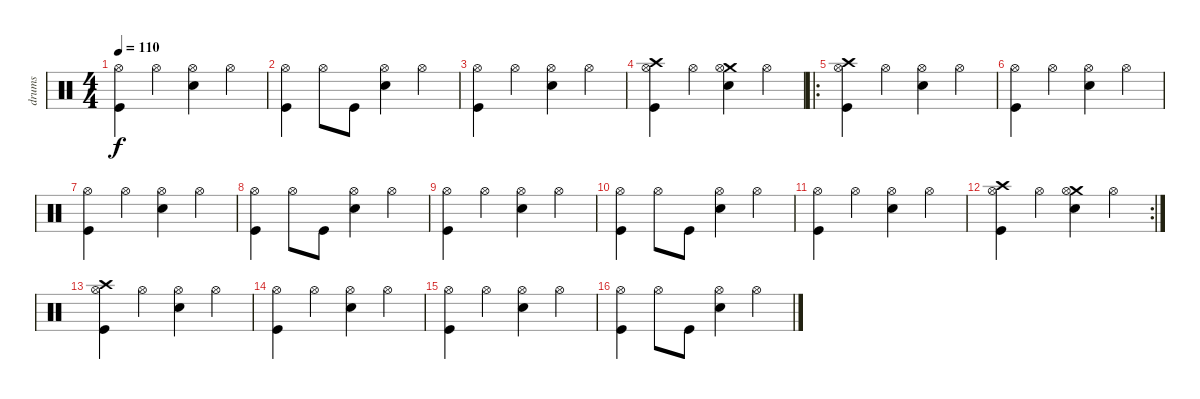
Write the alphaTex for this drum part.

\track ("drums" "drums") {instrument percussion}
\staff {score}
\articulation defaults
\ts (4 4)
\tempo 110
\clef neutral
\ks c
("Hi-Hat (open)" "Kick (hit)").4{dy f} "Hi-Hat (open)".4 ("Hi-Hat (open)" "Snare (hit) 2").4 "Hi-Hat (open)".4 |
("Hi-Hat (open)" "Kick (hit)").4 "Hi-Hat (open)".8 "Kick (hit)".8 ("Hi-Hat (open)" "Snare (hit) 2").4 "Hi-Hat (open)".4 |
("Hi-Hat (open)" "Kick (hit)").4 "Hi-Hat (open)".4 ("Hi-Hat (open)" "Snare (hit) 2").4 "Hi-Hat (open)".4 |
("Crash high (hit)" "Hi-Hat (open)" "Kick (hit)").4 "Hi-Hat (open)".4 ("Crash medium (hit)" "Hi-Hat (open)" "Snare (hit) 2").4 "Hi-Hat (open)".4 |
\ro
("Crash high (hit)" "Hi-Hat (open)" "Kick (hit)").4 "Hi-Hat (open)".4 ("Hi-Hat (open)" "Snare (hit) 2").4 "Hi-Hat (open)".4 |
("Hi-Hat (open)" "Kick (hit)").4 "Hi-Hat (open)".4 ("Hi-Hat (open)" "Snare (hit) 2").4 "Hi-Hat (open)".4 |
("Hi-Hat (open)" "Kick (hit)").4 "Hi-Hat (open)".4 ("Hi-Hat (open)" "Snare (hit) 2").4 "Hi-Hat (open)".4 |
("Hi-Hat (open)" "Kick (hit)").4 "Hi-Hat (open)".8 "Kick (hit)".8 ("Hi-Hat (open)" "Snare (hit) 2").4 "Hi-Hat (open)".4 |
("Hi-Hat (open)" "Kick (hit)").4 "Hi-Hat (open)".4 ("Hi-Hat (open)" "Snare (hit) 2").4 "Hi-Hat (open)".4 |
("Hi-Hat (open)" "Kick (hit)").4 "Hi-Hat (open)".8 "Kick (hit)".8 ("Hi-Hat (open)" "Snare (hit) 2").4 "Hi-Hat (open)".4 |
("Hi-Hat (open)" "Kick (hit)").4 "Hi-Hat (open)".4 ("Hi-Hat (open)" "Snare (hit) 2").4 "Hi-Hat (open)".4 |
\rc 2
("Crash high (hit)" "Hi-Hat (open)" "Kick (hit)").4 "Hi-Hat (open)".4 ("Crash medium (hit)" "Hi-Hat (open)" "Snare (hit) 2").4 "Hi-Hat (open)".4 |
("Crash high (hit)" "Hi-Hat (open)" "Kick (hit)").4 "Hi-Hat (open)".4 ("Hi-Hat (open)" "Snare (hit) 2").4 "Hi-Hat (open)".4 |
("Hi-Hat (open)" "Kick (hit)").4 "Hi-Hat (open)".4 ("Hi-Hat (open)" "Snare (hit) 2").4 "Hi-Hat (open)".4 |
("Hi-Hat (open)" "Kick (hit)").4 "Hi-Hat (open)".4 ("Hi-Hat (open)" "Snare (hit) 2").4 "Hi-Hat (open)".4 |
("Hi-Hat (open)" "Kick (hit)").4 "Hi-Hat (open)".8 "Kick (hit)".8 ("Hi-Hat (open)" "Snare (hit) 2").4 "Hi-Hat (open)".4
